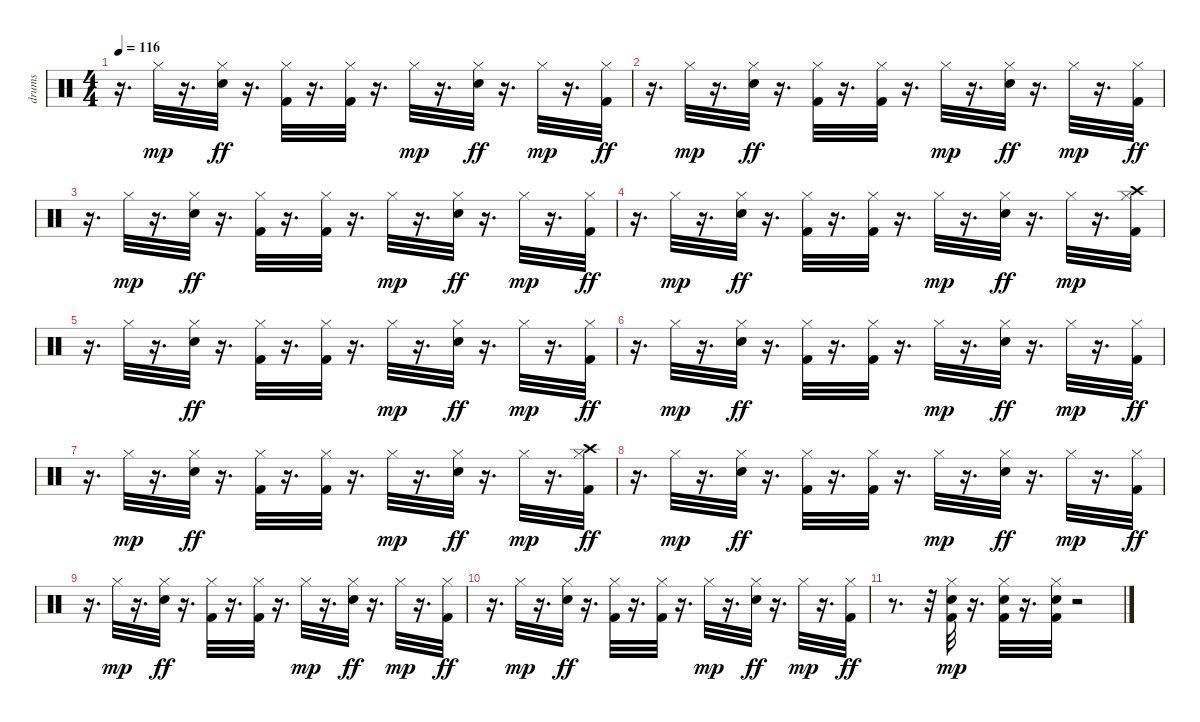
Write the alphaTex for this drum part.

\track ("drums" "drums") {instrument percussion}
\staff {score}
\articulation defaults
\ts (4 4)
\tempo 116
\clef neutral
\ks c
r.16{d dy ff} "Hi-Hat (closed)".32{dy mp} r.16{d} ("Hi-Hat (closed)" "Snare (hit) 2").32{dy ff} r.16{d} ("Hi-Hat (closed)" "Kick (hit) 2").32 r.16{d} ("Hi-Hat (closed)" "Kick (hit) 2").32 r.16{d} "Hi-Hat (closed)".32{dy mp} r.16{d} ("Hi-Hat (closed)" "Snare (hit) 2").32{dy ff} r.16{d} "Hi-Hat (closed)".32{dy mp} r.16{d} ("Hi-Hat (closed)" "Kick (hit) 2").32{dy ff} |
r.16{d} "Hi-Hat (closed)".32{dy mp} r.16{d} ("Hi-Hat (closed)" "Snare (hit) 2").32{dy ff} r.16{d} ("Hi-Hat (closed)" "Kick (hit) 2").32 r.16{d} ("Hi-Hat (closed)" "Kick (hit) 2").32 r.16{d} "Hi-Hat (closed)".32{dy mp} r.16{d} ("Hi-Hat (closed)" "Snare (hit) 2").32{dy ff} r.16{d} "Hi-Hat (closed)".32{dy mp} r.16{d} ("Hi-Hat (closed)" "Kick (hit) 2").32{dy ff} |
r.16{d} "Hi-Hat (closed)".32{dy mp} r.16{d} ("Hi-Hat (closed)" "Snare (hit) 2").32{dy ff} r.16{d} ("Hi-Hat (closed)" "Kick (hit) 2").32 r.16{d} ("Hi-Hat (closed)" "Kick (hit) 2").32 r.16{d} "Hi-Hat (closed)".32{dy mp} r.16{d} ("Hi-Hat (closed)" "Snare (hit) 2").32{dy ff} r.16{d} "Hi-Hat (closed)".32{dy mp} r.16{d} ("Hi-Hat (closed)" "Kick (hit) 2").32{dy ff} |
r.16{d} "Hi-Hat (closed)".32{dy mp} r.16{d} ("Hi-Hat (closed)" "Snare (hit) 2").32{dy ff} r.16{d} ("Hi-Hat (closed)" "Kick (hit) 2").32 r.16{d} ("Hi-Hat (closed)" "Kick (hit) 2").32 r.16{d} "Hi-Hat (closed)".32{dy mp} r.16{d} ("Hi-Hat (closed)" "Snare (hit) 2").32{dy ff} r.16{d} "Hi-Hat (closed)".32{dy mp} r.16{d} ("Hi-Hat (closed)" "Kick (hit) 2" "Crash high (hit)").32 |
r.16{d} "Hi-Hat (closed)".32 r.16{d} ("Hi-Hat (closed)" "Snare (hit) 2").32{dy ff} r.16{d} ("Hi-Hat (closed)" "Kick (hit) 2").32 r.16{d} ("Hi-Hat (closed)" "Kick (hit) 2").32 r.16{d} "Hi-Hat (closed)".32{dy mp} r.16{d} ("Hi-Hat (closed)" "Snare (hit) 2").32{dy ff} r.16{d} "Hi-Hat (closed)".32{dy mp} r.16{d} ("Hi-Hat (closed)" "Kick (hit) 2").32{dy ff} |
r.16{d} "Hi-Hat (closed)".32{dy mp} r.16{d} ("Hi-Hat (closed)" "Snare (hit) 2").32{dy ff} r.16{d} ("Hi-Hat (closed)" "Kick (hit) 2").32 r.16{d} ("Hi-Hat (closed)" "Kick (hit) 2").32 r.16{d} "Hi-Hat (closed)".32{dy mp} r.16{d} ("Hi-Hat (closed)" "Snare (hit) 2").32{dy ff} r.16{d} "Hi-Hat (closed)".32{dy mp} r.16{d} ("Hi-Hat (closed)" "Kick (hit) 2").32{dy ff} |
r.16{d} "Hi-Hat (closed)".32{dy mp} r.16{d} ("Hi-Hat (closed)" "Snare (hit) 2").32{dy ff} r.16{d} ("Hi-Hat (closed)" "Kick (hit) 2").32 r.16{d} ("Hi-Hat (closed)" "Kick (hit) 2").32 r.16{d} "Hi-Hat (closed)".32{dy mp} r.16{d} ("Hi-Hat (closed)" "Snare (hit) 2").32{dy ff} r.16{d} "Hi-Hat (closed)".32{dy mp} r.16{d} ("Crash high (hit)" "Hi-Hat (closed)" "Kick (hit) 2").32{dy ff} |
r.16{d} "Hi-Hat (closed)".32{dy mp} r.16{d} ("Hi-Hat (closed)" "Snare (hit) 2").32{dy ff} r.16{d} ("Hi-Hat (closed)" "Kick (hit) 2").32 r.16{d} ("Hi-Hat (closed)" "Kick (hit) 2").32 r.16{d} "Hi-Hat (closed)".32{dy mp} r.16{d} ("Hi-Hat (closed)" "Snare (hit) 2").32{dy ff} r.16{d} "Hi-Hat (closed)".32{dy mp} r.16{d} ("Hi-Hat (closed)" "Kick (hit) 2").32{dy ff} |
r.16{d} "Hi-Hat (closed)".32{dy mp} r.16{d} ("Hi-Hat (closed)" "Snare (hit) 2").32{dy ff} r.16{d} ("Hi-Hat (closed)" "Kick (hit) 2").32 r.16{d} ("Hi-Hat (closed)" "Kick (hit) 2").32 r.16{d} "Hi-Hat (closed)".32{dy mp} r.16{d} ("Hi-Hat (closed)" "Snare (hit) 2").32{dy ff} r.16{d} "Hi-Hat (closed)".32{dy mp} r.16{d} ("Hi-Hat (closed)" "Kick (hit) 2").32{dy ff} |
r.16{d} "Hi-Hat (closed)".32{dy mp} r.16{d} ("Hi-Hat (closed)" "Snare (hit) 2").32{dy ff} r.16{d} ("Hi-Hat (closed)" "Kick (hit) 2").32 r.16{d} ("Hi-Hat (closed)" "Kick (hit) 2").32 r.16{d} "Hi-Hat (closed)".32{dy mp} r.16{d} ("Hi-Hat (closed)" "Snare (hit) 2").32{dy ff} r.16{d} "Hi-Hat (closed)".32{dy mp} r.16{d} ("Hi-Hat (closed)" "Kick (hit) 2").32{dy ff} |
r.8{d} r.32 ("Kick (hit) 2" "Snare (hit) 2" "Hi-Hat (closed)").32{dy mp} r.16{d} ("Kick (hit) 2" "Snare (hit) 2" "Hi-Hat (closed)").32 r.16{d} ("Kick (hit) 2" "Snare (hit) 2" "Hi-Hat (closed)").32 r.2
